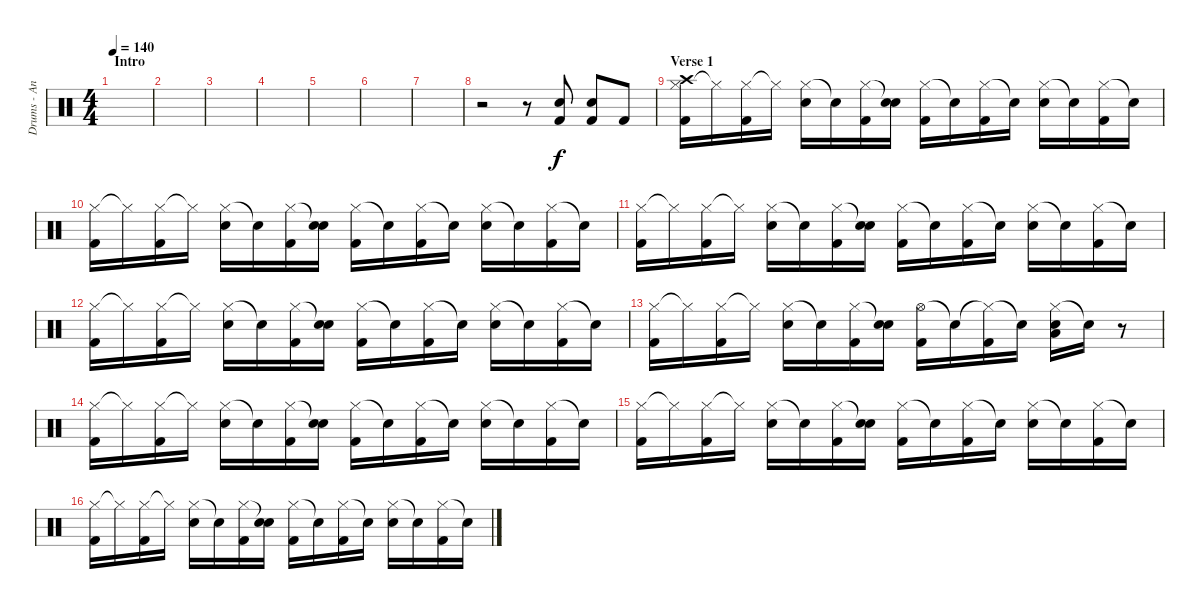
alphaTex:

\track ("Drums - Andy Strachan" "Drums - An") {instrument percussion}
\staff {score}
\articulation defaults
\ts (4 4)
\section ("" "Intro")
\tempo 140
\clef neutral
\ks c
|
|
|
|
|
|
|
r.2 r.8 ("Kick (hit) 2" "Electric Snare (hit)").8 ("Kick (hit) 2" "Electric Snare (hit)").8 "Kick (hit) 2".8 |
\section ("" "Verse 1")
("Hi-Hat (closed)" "Kick (hit) 2" "Crash high (hit)").16 "Hi-Hat (closed)"{t}.16 ("Hi-Hat (closed)" "Kick (hit) 2").16 "Hi-Hat (closed)"{t}.16 ("Hi-Hat (closed)" "Electric Snare (hit)").16 "Snare (hit)"{t}.16 ("Hi-Hat (closed)" "Kick (hit) 2").16 ("Snare (hit)"{t} "Electric Snare (hit)").16 ("Hi-Hat (closed)" "Kick (hit) 2").16 "Snare (hit)"{t}.16 ("Hi-Hat (closed)" "Kick (hit) 2").16 "Snare (hit)"{t}.16 ("Hi-Hat (closed)" "Electric Snare (hit)").16 "Snare (hit)"{t}.16 ("Hi-Hat (closed)" "Kick (hit) 2").16 "Snare (hit)"{t}.16 |
("Hi-Hat (closed)" "Kick (hit) 2").16 "Hi-Hat (closed)"{t}.16 ("Hi-Hat (closed)" "Kick (hit) 2").16 "Hi-Hat (closed)"{t}.16 ("Hi-Hat (closed)" "Electric Snare (hit)").16 "Snare (hit)"{t}.16 ("Hi-Hat (closed)" "Kick (hit) 2").16 ("Snare (hit)"{t} "Electric Snare (hit)").16 ("Hi-Hat (closed)" "Kick (hit) 2").16 "Snare (hit)"{t}.16 ("Hi-Hat (closed)" "Kick (hit) 2").16 "Snare (hit)"{t}.16 ("Hi-Hat (closed)" "Electric Snare (hit)").16 "Snare (hit)"{t}.16 ("Hi-Hat (closed)" "Kick (hit) 2").16 "Snare (hit)"{t}.16 |
("Hi-Hat (closed)" "Kick (hit) 2").16 "Hi-Hat (closed)"{t}.16 ("Hi-Hat (closed)" "Kick (hit) 2").16 "Hi-Hat (closed)"{t}.16 ("Hi-Hat (closed)" "Electric Snare (hit)").16 "Snare (hit)"{t}.16 ("Hi-Hat (closed)" "Kick (hit) 2").16 ("Snare (hit)"{t} "Electric Snare (hit)").16 ("Hi-Hat (closed)" "Kick (hit) 2").16 "Snare (hit)"{t}.16 ("Hi-Hat (closed)" "Kick (hit) 2").16 "Snare (hit)"{t}.16 ("Hi-Hat (closed)" "Electric Snare (hit)").16 "Snare (hit)"{t}.16 ("Hi-Hat (closed)" "Kick (hit) 2").16 "Snare (hit)"{t}.16 |
("Hi-Hat (closed)" "Kick (hit) 2").16 "Hi-Hat (closed)"{t}.16 ("Hi-Hat (closed)" "Kick (hit) 2").16 "Hi-Hat (closed)"{t}.16 ("Hi-Hat (closed)" "Electric Snare (hit)").16 "Snare (hit)"{t}.16 ("Hi-Hat (closed)" "Kick (hit) 2").16 ("Snare (hit)"{t} "Electric Snare (hit)").16 ("Hi-Hat (closed)" "Kick (hit) 2").16 "Snare (hit)"{t}.16 ("Hi-Hat (closed)" "Kick (hit) 2").16 "Snare (hit)"{t}.16 ("Hi-Hat (closed)" "Electric Snare (hit)").16 "Snare (hit)"{t}.16 ("Hi-Hat (closed)" "Kick (hit) 2").16 "Snare (hit)"{t}.16 |
("Hi-Hat (closed)" "Kick (hit) 2").16 "Hi-Hat (closed)"{t}.16 ("Hi-Hat (closed)" "Kick (hit) 2").16 "Hi-Hat (closed)"{t}.16 ("Hi-Hat (closed)" "Electric Snare (hit)").16 "Snare (hit)"{t}.16 ("Hi-Hat (closed)" "Kick (hit) 2").16 ("Snare (hit)"{t} "Electric Snare (hit)").16 ("Hi-Hat (open)" "Kick (hit) 2").16 "Snare (hit)"{t}.16 ("Hi-Hat (closed)"{t} "Kick (hit) 2").16 "Snare (hit)"{t}.16 ("Hi-Hat (closed)" "Electric Snare (hit)" "Low Floor Tom (hit)").16 "Snare (hit)"{t}.16 r.8 |
("Hi-Hat (closed)" "Kick (hit) 2").16 "Hi-Hat (closed)"{t}.16 ("Hi-Hat (closed)" "Kick (hit) 2").16 "Hi-Hat (closed)"{t}.16 ("Hi-Hat (closed)" "Electric Snare (hit)").16 "Snare (hit)"{t}.16 ("Hi-Hat (closed)" "Kick (hit) 2").16 ("Snare (hit)"{t} "Electric Snare (hit)").16 ("Hi-Hat (closed)" "Kick (hit) 2").16 "Snare (hit)"{t}.16 ("Hi-Hat (closed)" "Kick (hit) 2").16 "Snare (hit)"{t}.16 ("Hi-Hat (closed)" "Electric Snare (hit)").16 "Snare (hit)"{t}.16 ("Hi-Hat (closed)" "Kick (hit) 2").16 "Snare (hit)"{t}.16 |
("Hi-Hat (closed)" "Kick (hit) 2").16 "Hi-Hat (closed)"{t}.16 ("Hi-Hat (closed)" "Kick (hit) 2").16 "Hi-Hat (closed)"{t}.16 ("Hi-Hat (closed)" "Electric Snare (hit)").16 "Snare (hit)"{t}.16 ("Hi-Hat (closed)" "Kick (hit) 2").16 ("Snare (hit)"{t} "Electric Snare (hit)").16 ("Hi-Hat (closed)" "Kick (hit) 2").16 "Snare (hit)"{t}.16 ("Hi-Hat (closed)" "Kick (hit) 2").16 "Snare (hit)"{t}.16 ("Hi-Hat (closed)" "Electric Snare (hit)").16 "Snare (hit)"{t}.16 ("Hi-Hat (closed)" "Kick (hit) 2").16 "Snare (hit)"{t}.16 |
("Hi-Hat (closed)" "Kick (hit) 2").16 "Hi-Hat (closed)"{t}.16 ("Hi-Hat (closed)" "Kick (hit) 2").16 "Hi-Hat (closed)"{t}.16 ("Hi-Hat (closed)" "Electric Snare (hit)").16 "Snare (hit)"{t}.16 ("Hi-Hat (closed)" "Kick (hit) 2").16 ("Snare (hit)"{t} "Electric Snare (hit)").16 ("Hi-Hat (closed)" "Kick (hit) 2").16 "Snare (hit)"{t}.16 ("Hi-Hat (closed)" "Kick (hit) 2").16 "Snare (hit)"{t}.16 ("Hi-Hat (closed)" "Electric Snare (hit)").16 "Snare (hit)"{t}.16 ("Hi-Hat (closed)" "Kick (hit) 2").16 "Snare (hit)"{t}.16
